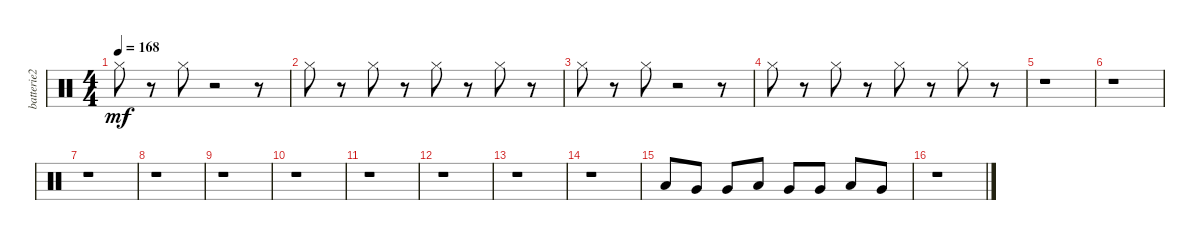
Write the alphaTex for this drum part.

\track ("batterie2" "batterie2") {instrument percussion}
\staff {score}
\articulation defaults
\ts (4 4)
\tempo 168
\clef neutral
\ks c "Hi-Hat (closed)".8{dy mf}
r.8 "Hi-Hat (closed)".8 r.2 r.8 |
"Hi-Hat (closed)".8 r.8 "Hi-Hat (closed)".8 r.8 "Hi-Hat (closed)".8 r.8 "Hi-Hat (closed)".8 r.8 |
"Hi-Hat (closed)".8 r.8 "Hi-Hat (closed)".8 r.2 r.8 |
"Hi-Hat (closed)".8 r.8 "Hi-Hat (closed)".8 r.8 "Hi-Hat (closed)".8 r.8 "Hi-Hat (closed)".8 r.8 |
r.1 |
r.1 |
r.1 |
r.1 |
r.1 |
r.1 |
r.1 |
r.1 |
r.1 |
r.1 |
"Low Tom (hit)".8 "Very Low Tom (hit)".8 "Very Low Tom (hit)".8 "Low Tom (hit)".8 "Very Low Tom (hit)".8 "Very Low Tom (hit)".8 "Low Tom (hit)".8 "Very Low Tom (hit)".8 |
r.1
